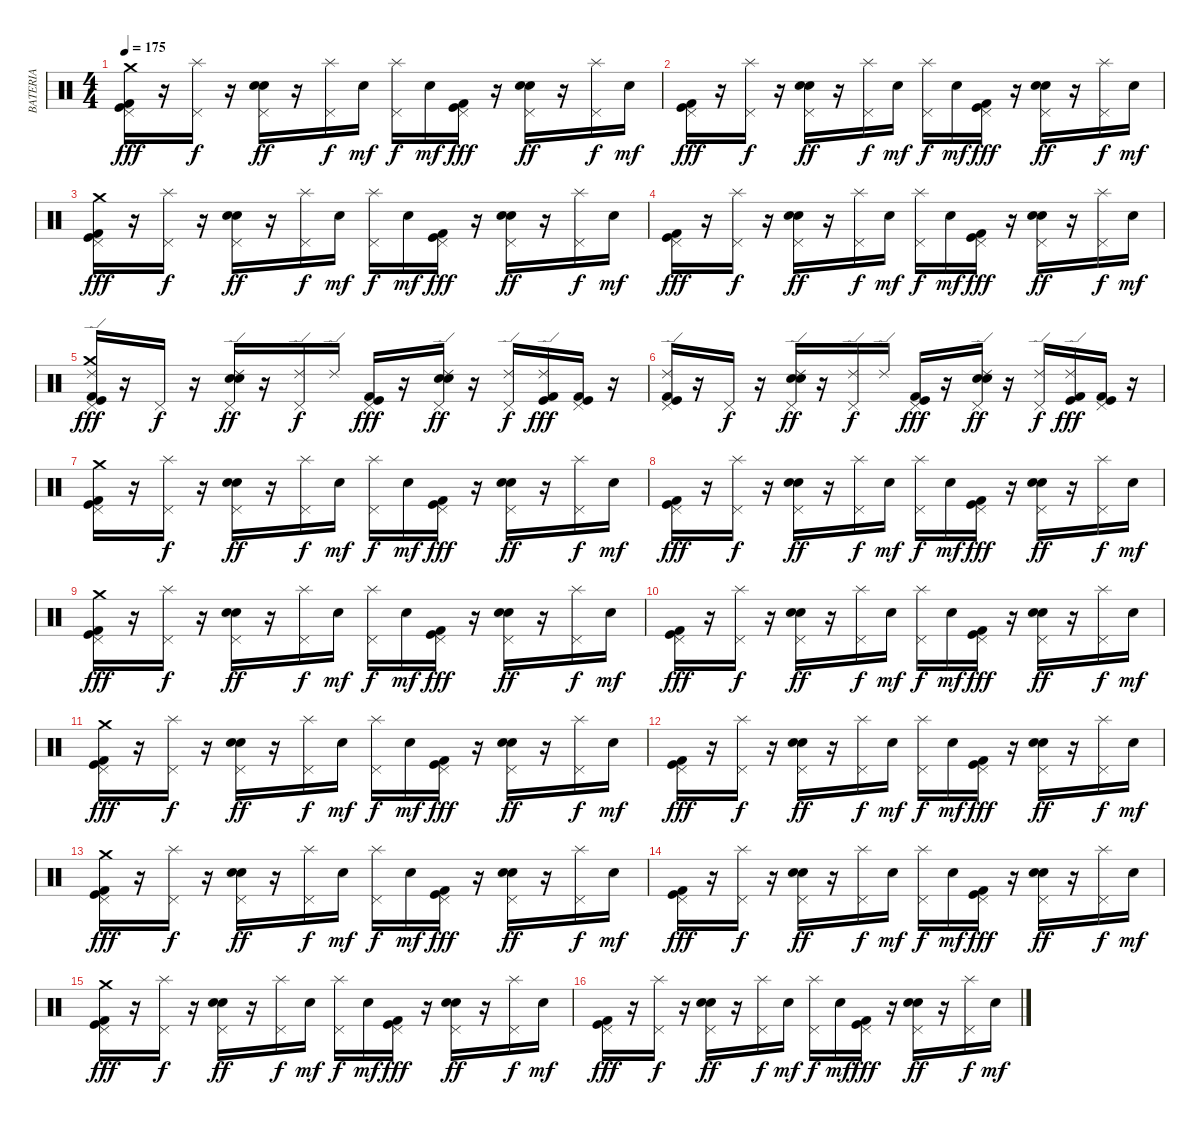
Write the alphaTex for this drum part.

\track ("BATERIA" "BATERIA") {instrument percussion}
\staff {score}
\articulation defaults
\ts (4 4)
\tempo 175
\clef neutral
\ks c
("Pedal Hi-Hat (hit)" "Kick (hit)" "Kick (hit) 2" "Crash medium (hit)").16{dy fff} r.16 ("Pedal Hi-Hat (hit)" "Splash (hit)").16{dy f} r.16 ("Pedal Hi-Hat (hit)" "Snare (hit) 2" "Electric Snare (hit)").16{dy ff} r.16 ("Splash (hit)" "Pedal Hi-Hat (hit)").16{dy f} "Snare (hit) 2".16{dy mf} ("Splash (hit)" "Pedal Hi-Hat (hit)").16{dy f} "Snare (hit) 2".16{dy mf} ("Pedal Hi-Hat (hit)" "Kick (hit)" "Kick (hit) 2").16{dy fff} r.16 ("Pedal Hi-Hat (hit)" "Snare (hit) 2" "Electric Snare (hit)").16{dy ff} r.16 ("Splash (hit)" "Pedal Hi-Hat (hit)").16{dy f} "Snare (hit) 2".16{dy mf} |
("Pedal Hi-Hat (hit)" "Kick (hit)" "Kick (hit) 2").16{dy fff} r.16 ("Pedal Hi-Hat (hit)" "Splash (hit)").16{dy f} r.16 ("Pedal Hi-Hat (hit)" "Snare (hit) 2" "Electric Snare (hit)").16{dy ff} r.16 ("Splash (hit)" "Pedal Hi-Hat (hit)").16{dy f} "Snare (hit) 2".16{dy mf} ("Splash (hit)" "Pedal Hi-Hat (hit)").16{dy f} "Snare (hit) 2".16{dy mf} ("Pedal Hi-Hat (hit)" "Kick (hit)" "Kick (hit) 2").16{dy fff} r.16 ("Pedal Hi-Hat (hit)" "Snare (hit) 2" "Electric Snare (hit)").16{dy ff} r.16 ("Splash (hit)" "Pedal Hi-Hat (hit)").16{dy f} "Snare (hit) 2".16{dy mf} |
("Crash medium (hit)" "Kick (hit) 2" "Kick (hit)" "Pedal Hi-Hat (hit)").16{dy fff} r.16 ("Splash (hit)" "Pedal Hi-Hat (hit)").16{dy f} r.16 ("Electric Snare (hit)" "Snare (hit) 2" "Pedal Hi-Hat (hit)").16{dy ff} r.16 ("Pedal Hi-Hat (hit)" "Splash (hit)").16{dy f} "Snare (hit) 2".16{dy mf} ("Pedal Hi-Hat (hit)" "Splash (hit)").16{dy f} "Snare (hit) 2".16{dy mf} ("Kick (hit) 2" "Kick (hit)" "Pedal Hi-Hat (hit)").16{dy fff} r.16 ("Electric Snare (hit)" "Snare (hit) 2" "Pedal Hi-Hat (hit)").16{dy ff} r.16 ("Pedal Hi-Hat (hit)" "Splash (hit)").16{dy f} "Snare (hit) 2".16{dy mf} |
("Kick (hit) 2" "Kick (hit)" "Pedal Hi-Hat (hit)").16{dy fff} r.16 ("Splash (hit)" "Pedal Hi-Hat (hit)").16{dy f} r.16 ("Electric Snare (hit)" "Snare (hit) 2" "Pedal Hi-Hat (hit)").16{dy ff} r.16 ("Pedal Hi-Hat (hit)" "Splash (hit)").16{dy f} "Snare (hit) 2".16{dy mf} ("Pedal Hi-Hat (hit)" "Splash (hit)").16{dy f} "Snare (hit) 2".16{dy mf} ("Kick (hit) 2" "Kick (hit)" "Pedal Hi-Hat (hit)").16{dy fff} r.16 ("Electric Snare (hit)" "Snare (hit) 2" "Pedal Hi-Hat (hit)").16{dy ff} r.16 ("Pedal Hi-Hat (hit)" "Splash (hit)").16{dy f} "Snare (hit) 2".16{dy mf} |
("Ride (edge) 2" "Crash medium (hit)" "Kick (hit) 2" "Kick (hit)" "Pedal Hi-Hat (hit)").16{dy fff} r.16 "Pedal Hi-Hat (hit)".16{dy f} r.16 ("Ride (edge) 2" "Electric Snare (hit)" "Snare (hit) 2" "Pedal Hi-Hat (hit)").16{dy ff} r.16 ("Ride (edge) 2" "Pedal Hi-Hat (hit)").16{dy f} "Ride (edge) 2".16 ("Kick (hit) 2" "Kick (hit)" "Pedal Hi-Hat (hit)").16{dy fff} r.16 ("Ride (edge) 2" "Electric Snare (hit)" "Snare (hit) 2" "Pedal Hi-Hat (hit)").16{dy ff} r.16 ("Ride (edge) 2" "Pedal Hi-Hat (hit)").16{dy f} ("Ride (edge) 2" "Kick (hit)" "Kick (hit) 2").16{dy fff} ("Kick (hit) 2" "Kick (hit)" "Pedal Hi-Hat (hit)").16 r.16 |
("Ride (edge) 2" "Kick (hit) 2" "Kick (hit)" "Pedal Hi-Hat (hit)").16 r.16 "Pedal Hi-Hat (hit)".16{dy f} r.16 ("Pedal Hi-Hat (hit)" "Snare (hit) 2" "Electric Snare (hit)" "Ride (edge) 2").16{dy ff} r.16 ("Pedal Hi-Hat (hit)" "Ride (edge) 2").16{dy f} "Ride (edge) 2".16 ("Kick (hit) 2" "Kick (hit)" "Pedal Hi-Hat (hit)").16{dy fff} r.16 ("Ride (edge) 2" "Electric Snare (hit)" "Snare (hit) 2" "Pedal Hi-Hat (hit)").16{dy ff} r.16 ("Ride (edge) 2" "Pedal Hi-Hat (hit)").16{dy f} ("Ride (edge) 2" "Kick (hit)" "Kick (hit) 2").16{dy fff} ("Kick (hit) 2" "Kick (hit)" "Pedal Hi-Hat (hit)").16 r.16 |
("Pedal Hi-Hat (hit)" "Kick (hit)" "Kick (hit) 2" "Crash medium (hit)").16 r.16 ("Pedal Hi-Hat (hit)" "Splash (hit)").16{dy f} r.16 ("Pedal Hi-Hat (hit)" "Snare (hit) 2" "Electric Snare (hit)").16{dy ff} r.16 ("Splash (hit)" "Pedal Hi-Hat (hit)").16{dy f} "Snare (hit) 2".16{dy mf} ("Splash (hit)" "Pedal Hi-Hat (hit)").16{dy f} "Snare (hit) 2".16{dy mf} ("Pedal Hi-Hat (hit)" "Kick (hit)" "Kick (hit) 2").16{dy fff} r.16 ("Pedal Hi-Hat (hit)" "Snare (hit) 2" "Electric Snare (hit)").16{dy ff} r.16 ("Splash (hit)" "Pedal Hi-Hat (hit)").16{dy f} "Snare (hit) 2".16{dy mf} |
("Pedal Hi-Hat (hit)" "Kick (hit)" "Kick (hit) 2").16{dy fff} r.16 ("Pedal Hi-Hat (hit)" "Splash (hit)").16{dy f} r.16 ("Pedal Hi-Hat (hit)" "Snare (hit) 2" "Electric Snare (hit)").16{dy ff} r.16 ("Splash (hit)" "Pedal Hi-Hat (hit)").16{dy f} "Snare (hit) 2".16{dy mf} ("Splash (hit)" "Pedal Hi-Hat (hit)").16{dy f} "Snare (hit) 2".16{dy mf} ("Pedal Hi-Hat (hit)" "Kick (hit)" "Kick (hit) 2").16{dy fff} r.16 ("Pedal Hi-Hat (hit)" "Snare (hit) 2" "Electric Snare (hit)").16{dy ff} r.16 ("Splash (hit)" "Pedal Hi-Hat (hit)").16{dy f} "Snare (hit) 2".16{dy mf} |
("Pedal Hi-Hat (hit)" "Kick (hit)" "Kick (hit) 2" "Crash medium (hit)").16{dy fff} r.16 ("Pedal Hi-Hat (hit)" "Splash (hit)").16{dy f} r.16 ("Pedal Hi-Hat (hit)" "Snare (hit) 2" "Electric Snare (hit)").16{dy ff} r.16 ("Splash (hit)" "Pedal Hi-Hat (hit)").16{dy f} "Snare (hit) 2".16{dy mf} ("Splash (hit)" "Pedal Hi-Hat (hit)").16{dy f} "Snare (hit) 2".16{dy mf} ("Pedal Hi-Hat (hit)" "Kick (hit)" "Kick (hit) 2").16{dy fff} r.16 ("Pedal Hi-Hat (hit)" "Snare (hit) 2" "Electric Snare (hit)").16{dy ff} r.16 ("Splash (hit)" "Pedal Hi-Hat (hit)").16{dy f} "Snare (hit) 2".16{dy mf} |
("Pedal Hi-Hat (hit)" "Kick (hit)" "Kick (hit) 2").16{dy fff} r.16 ("Pedal Hi-Hat (hit)" "Splash (hit)").16{dy f} r.16 ("Pedal Hi-Hat (hit)" "Snare (hit) 2" "Electric Snare (hit)").16{dy ff} r.16 ("Splash (hit)" "Pedal Hi-Hat (hit)").16{dy f} "Snare (hit) 2".16{dy mf} ("Splash (hit)" "Pedal Hi-Hat (hit)").16{dy f} "Snare (hit) 2".16{dy mf} ("Pedal Hi-Hat (hit)" "Kick (hit)" "Kick (hit) 2").16{dy fff} r.16 ("Pedal Hi-Hat (hit)" "Snare (hit) 2" "Electric Snare (hit)").16{dy ff} r.16 ("Splash (hit)" "Pedal Hi-Hat (hit)").16{dy f} "Snare (hit) 2".16{dy mf} |
("Pedal Hi-Hat (hit)" "Kick (hit)" "Kick (hit) 2" "Crash medium (hit)").16{dy fff} r.16 ("Pedal Hi-Hat (hit)" "Splash (hit)").16{dy f} r.16 ("Pedal Hi-Hat (hit)" "Snare (hit) 2" "Electric Snare (hit)").16{dy ff} r.16 ("Splash (hit)" "Pedal Hi-Hat (hit)").16{dy f} "Snare (hit) 2".16{dy mf} ("Splash (hit)" "Pedal Hi-Hat (hit)").16{dy f} "Snare (hit) 2".16{dy mf} ("Pedal Hi-Hat (hit)" "Kick (hit)" "Kick (hit) 2").16{dy fff} r.16 ("Pedal Hi-Hat (hit)" "Snare (hit) 2" "Electric Snare (hit)").16{dy ff} r.16 ("Splash (hit)" "Pedal Hi-Hat (hit)").16{dy f} "Snare (hit) 2".16{dy mf} |
("Pedal Hi-Hat (hit)" "Kick (hit)" "Kick (hit) 2").16{dy fff} r.16 ("Pedal Hi-Hat (hit)" "Splash (hit)").16{dy f} r.16 ("Pedal Hi-Hat (hit)" "Snare (hit) 2" "Electric Snare (hit)").16{dy ff} r.16 ("Splash (hit)" "Pedal Hi-Hat (hit)").16{dy f} "Snare (hit) 2".16{dy mf} ("Splash (hit)" "Pedal Hi-Hat (hit)").16{dy f} "Snare (hit) 2".16{dy mf} ("Pedal Hi-Hat (hit)" "Kick (hit)" "Kick (hit) 2").16{dy fff} r.16 ("Pedal Hi-Hat (hit)" "Snare (hit) 2" "Electric Snare (hit)").16{dy ff} r.16 ("Splash (hit)" "Pedal Hi-Hat (hit)").16{dy f} "Snare (hit) 2".16{dy mf} |
("Pedal Hi-Hat (hit)" "Kick (hit)" "Kick (hit) 2" "Crash medium (hit)").16{dy fff} r.16 ("Pedal Hi-Hat (hit)" "Splash (hit)").16{dy f} r.16 ("Pedal Hi-Hat (hit)" "Snare (hit) 2" "Electric Snare (hit)").16{dy ff} r.16 ("Splash (hit)" "Pedal Hi-Hat (hit)").16{dy f} "Snare (hit) 2".16{dy mf} ("Splash (hit)" "Pedal Hi-Hat (hit)").16{dy f} "Snare (hit) 2".16{dy mf} ("Pedal Hi-Hat (hit)" "Kick (hit)" "Kick (hit) 2").16{dy fff} r.16 ("Pedal Hi-Hat (hit)" "Snare (hit) 2" "Electric Snare (hit)").16{dy ff} r.16 ("Splash (hit)" "Pedal Hi-Hat (hit)").16{dy f} "Snare (hit) 2".16{dy mf} |
("Pedal Hi-Hat (hit)" "Kick (hit)" "Kick (hit) 2").16{dy fff} r.16 ("Pedal Hi-Hat (hit)" "Splash (hit)").16{dy f} r.16 ("Pedal Hi-Hat (hit)" "Snare (hit) 2" "Electric Snare (hit)").16{dy ff} r.16 ("Splash (hit)" "Pedal Hi-Hat (hit)").16{dy f} "Snare (hit) 2".16{dy mf} ("Splash (hit)" "Pedal Hi-Hat (hit)").16{dy f} "Snare (hit) 2".16{dy mf} ("Pedal Hi-Hat (hit)" "Kick (hit)" "Kick (hit) 2").16{dy fff} r.16 ("Pedal Hi-Hat (hit)" "Snare (hit) 2" "Electric Snare (hit)").16{dy ff} r.16 ("Splash (hit)" "Pedal Hi-Hat (hit)").16{dy f} "Snare (hit) 2".16{dy mf} |
("Pedal Hi-Hat (hit)" "Kick (hit)" "Kick (hit) 2" "Crash medium (hit)").16{dy fff} r.16 ("Pedal Hi-Hat (hit)" "Splash (hit)").16{dy f} r.16 ("Pedal Hi-Hat (hit)" "Snare (hit) 2" "Electric Snare (hit)").16{dy ff} r.16 ("Splash (hit)" "Pedal Hi-Hat (hit)").16{dy f} "Snare (hit) 2".16{dy mf} ("Splash (hit)" "Pedal Hi-Hat (hit)").16{dy f} "Snare (hit) 2".16{dy mf} ("Pedal Hi-Hat (hit)" "Kick (hit)" "Kick (hit) 2").16{dy fff} r.16 ("Pedal Hi-Hat (hit)" "Snare (hit) 2" "Electric Snare (hit)").16{dy ff} r.16 ("Splash (hit)" "Pedal Hi-Hat (hit)").16{dy f} "Snare (hit) 2".16{dy mf} |
("Pedal Hi-Hat (hit)" "Kick (hit)" "Kick (hit) 2").16{dy fff} r.16 ("Pedal Hi-Hat (hit)" "Splash (hit)").16{dy f} r.16 ("Pedal Hi-Hat (hit)" "Snare (hit) 2" "Electric Snare (hit)").16{dy ff} r.16 ("Splash (hit)" "Pedal Hi-Hat (hit)").16{dy f} "Snare (hit) 2".16{dy mf} ("Splash (hit)" "Pedal Hi-Hat (hit)").16{dy f} "Snare (hit) 2".16{dy mf} ("Pedal Hi-Hat (hit)" "Kick (hit)" "Kick (hit) 2").16{dy fff} r.16 ("Pedal Hi-Hat (hit)" "Snare (hit) 2" "Electric Snare (hit)").16{dy ff} r.16 ("Splash (hit)" "Pedal Hi-Hat (hit)").16{dy f} "Snare (hit) 2".16{dy mf}
